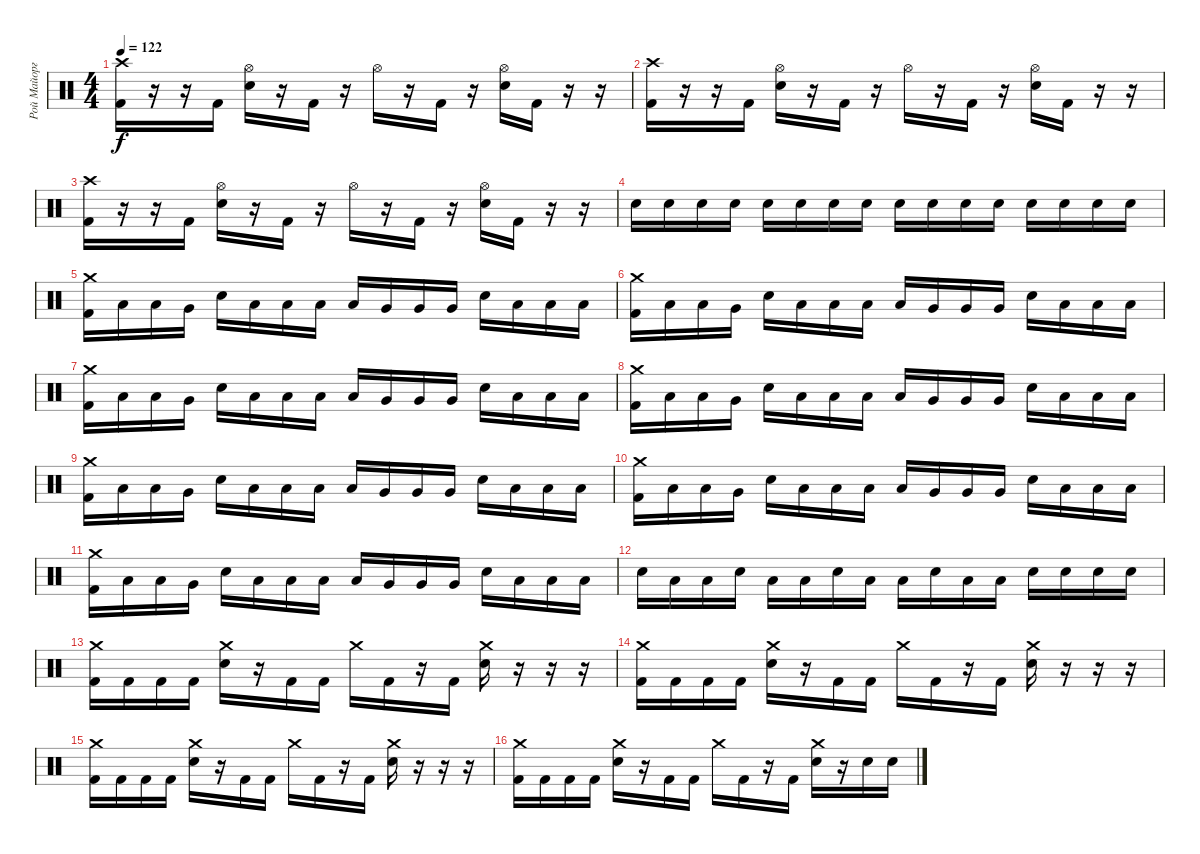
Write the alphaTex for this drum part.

\track ("Рой Майорга" "Рой Майорг") {instrument percussion}
\staff {score}
\articulation defaults
\ts (4 4)
\tempo 122
\clef neutral
\ks c
("Crash high (hit)" "Kick (hit) 2").16{dy f} r.16 r.16 "Kick (hit) 2".16 ("Hi-Hat (open)" "Electric Snare (hit)").16 r.16 "Kick (hit) 2".16 r.16 "Hi-Hat (open)".16 r.16 "Kick (hit) 2".16 r.16 ("Hi-Hat (open)" "Electric Snare (hit)").16 "Kick (hit) 2".16 r.16 r.16 |
("Crash high (hit)" "Kick (hit) 2").16 r.16 r.16 "Kick (hit) 2".16 ("Hi-Hat (open)" "Electric Snare (hit)").16 r.16 "Kick (hit) 2".16 r.16 "Hi-Hat (open)".16 r.16 "Kick (hit) 2".16 r.16 ("Hi-Hat (open)" "Electric Snare (hit)").16 "Kick (hit) 2".16 r.16 r.16 |
("Crash high (hit)" "Kick (hit) 2").16 r.16 r.16 "Kick (hit) 2".16 ("Hi-Hat (open)" "Electric Snare (hit)").16 r.16 "Kick (hit) 2".16 r.16 "Hi-Hat (open)".16 r.16 "Kick (hit) 2".16 r.16 ("Hi-Hat (open)" "Electric Snare (hit)").16 "Kick (hit) 2".16 r.16 r.16 |
"Electric Snare (hit)".16 "Electric Snare (hit)".16 "Electric Snare (hit)".16 "Electric Snare (hit)".16 "Electric Snare (hit)".16 "Electric Snare (hit)".16 "Electric Snare (hit)".16 "Electric Snare (hit)".16 "Electric Snare (hit)".16 "Electric Snare (hit)".16 "Electric Snare (hit)".16 "Electric Snare (hit)".16 "Electric Snare (hit)".16 "Electric Snare (hit)".16 "Electric Snare (hit)".16 "Electric Snare (hit)".16 |
("Crash medium (hit)" "Kick (hit) 2").16 "Low Tom (hit)".16 "Low Tom (hit)".16 "Very Low Tom (hit)".16 "Electric Snare (hit)".16 "Low Tom (hit)".16 "Low Tom (hit)".16 "Low Tom (hit)".16 "Low Tom (hit)".16 "Very Low Tom (hit)".16 "Very Low Tom (hit)".16 "Very Low Tom (hit)".16 "Electric Snare (hit)".16 "Low Tom (hit)".16 "Low Tom (hit)".16 "Low Tom (hit)".16 |
("Crash medium (hit)" "Kick (hit) 2").16 "Low Tom (hit)".16 "Low Tom (hit)".16 "Very Low Tom (hit)".16 "Electric Snare (hit)".16 "Low Tom (hit)".16 "Low Tom (hit)".16 "Low Tom (hit)".16 "Low Tom (hit)".16 "Very Low Tom (hit)".16 "Very Low Tom (hit)".16 "Very Low Tom (hit)".16 "Electric Snare (hit)".16 "Low Tom (hit)".16 "Low Tom (hit)".16 "Low Tom (hit)".16 |
("Crash medium (hit)" "Kick (hit) 2").16 "Low Tom (hit)".16 "Low Tom (hit)".16 "Very Low Tom (hit)".16 "Electric Snare (hit)".16 "Low Tom (hit)".16 "Low Tom (hit)".16 "Low Tom (hit)".16 "Low Tom (hit)".16 "Very Low Tom (hit)".16 "Very Low Tom (hit)".16 "Very Low Tom (hit)".16 "Electric Snare (hit)".16 "Low Tom (hit)".16 "Low Tom (hit)".16 "Low Tom (hit)".16 |
("Crash medium (hit)" "Kick (hit) 2").16 "Low Tom (hit)".16 "Low Tom (hit)".16 "Very Low Tom (hit)".16 "Electric Snare (hit)".16 "Low Tom (hit)".16 "Low Tom (hit)".16 "Low Tom (hit)".16 "Low Tom (hit)".16 "Very Low Tom (hit)".16 "Very Low Tom (hit)".16 "Very Low Tom (hit)".16 "Electric Snare (hit)".16 "Low Tom (hit)".16 "Low Tom (hit)".16 "Low Tom (hit)".16 |
("Crash medium (hit)" "Kick (hit) 2").16 "Low Tom (hit)".16 "Low Tom (hit)".16 "Very Low Tom (hit)".16 "Electric Snare (hit)".16 "Low Tom (hit)".16 "Low Tom (hit)".16 "Low Tom (hit)".16 "Low Tom (hit)".16 "Very Low Tom (hit)".16 "Very Low Tom (hit)".16 "Very Low Tom (hit)".16 "Electric Snare (hit)".16 "Low Tom (hit)".16 "Low Tom (hit)".16 "Low Tom (hit)".16 |
("Crash medium (hit)" "Kick (hit) 2").16 "Low Tom (hit)".16 "Low Tom (hit)".16 "Very Low Tom (hit)".16 "Electric Snare (hit)".16 "Low Tom (hit)".16 "Low Tom (hit)".16 "Low Tom (hit)".16 "Low Tom (hit)".16 "Very Low Tom (hit)".16 "Very Low Tom (hit)".16 "Very Low Tom (hit)".16 "Electric Snare (hit)".16 "Low Tom (hit)".16 "Low Tom (hit)".16 "Low Tom (hit)".16 |
("Crash medium (hit)" "Kick (hit) 2").16 "Low Tom (hit)".16 "Low Tom (hit)".16 "Very Low Tom (hit)".16 "Electric Snare (hit)".16 "Low Tom (hit)".16 "Low Tom (hit)".16 "Low Tom (hit)".16 "Low Tom (hit)".16 "Very Low Tom (hit)".16 "Very Low Tom (hit)".16 "Very Low Tom (hit)".16 "Electric Snare (hit)".16 "Low Tom (hit)".16 "Low Tom (hit)".16 "Low Tom (hit)".16 |
"Electric Snare (hit)".16 "Low Tom (hit)".16 "Low Tom (hit)".16 "Electric Snare (hit)".16 "Low Tom (hit)".16 "Low Tom (hit)".16 "Electric Snare (hit)".16 "Low Tom (hit)".16 "Low Tom (hit)".16 "Electric Snare (hit)".16 "Low Tom (hit)".16 "Low Tom (hit)".16 "Electric Snare (hit)".16 "Electric Snare (hit)".16 "Electric Snare (hit)".16 "Electric Snare (hit)".16 |
("Crash medium (hit)" "Kick (hit) 2").16 "Kick (hit) 2".16 "Kick (hit) 2".16 "Kick (hit) 2".16 ("Crash medium (hit)" "Electric Snare (hit)").16 r.16 "Kick (hit) 2".16 "Kick (hit) 2".16 "Crash medium (hit)".16 "Kick (hit) 2".16 r.16 "Kick (hit) 2".16 ("Crash medium (hit)" "Electric Snare (hit)").16 r.16 r.16 r.16 |
("Crash medium (hit)" "Kick (hit) 2").16 "Kick (hit) 2".16 "Kick (hit) 2".16 "Kick (hit) 2".16 ("Crash medium (hit)" "Electric Snare (hit)").16 r.16 "Kick (hit) 2".16 "Kick (hit) 2".16 "Crash medium (hit)".16 "Kick (hit) 2".16 r.16 "Kick (hit) 2".16 ("Crash medium (hit)" "Electric Snare (hit)").16 r.16 r.16 r.16 |
("Crash medium (hit)" "Kick (hit) 2").16 "Kick (hit) 2".16 "Kick (hit) 2".16 "Kick (hit) 2".16 ("Crash medium (hit)" "Electric Snare (hit)").16 r.16 "Kick (hit) 2".16 "Kick (hit) 2".16 "Crash medium (hit)".16 "Kick (hit) 2".16 r.16 "Kick (hit) 2".16 ("Crash medium (hit)" "Electric Snare (hit)").16 r.16 r.16 r.16 |
("Crash medium (hit)" "Kick (hit) 2").16 "Kick (hit) 2".16 "Kick (hit) 2".16 "Kick (hit) 2".16 ("Crash medium (hit)" "Electric Snare (hit)").16 r.16 "Kick (hit) 2".16 "Kick (hit) 2".16 "Crash medium (hit)".16 "Kick (hit) 2".16 r.16 "Kick (hit) 2".16 ("Crash medium (hit)" "Electric Snare (hit)").16 r.16 "Electric Snare (hit)".16 "Electric Snare (hit)".16
